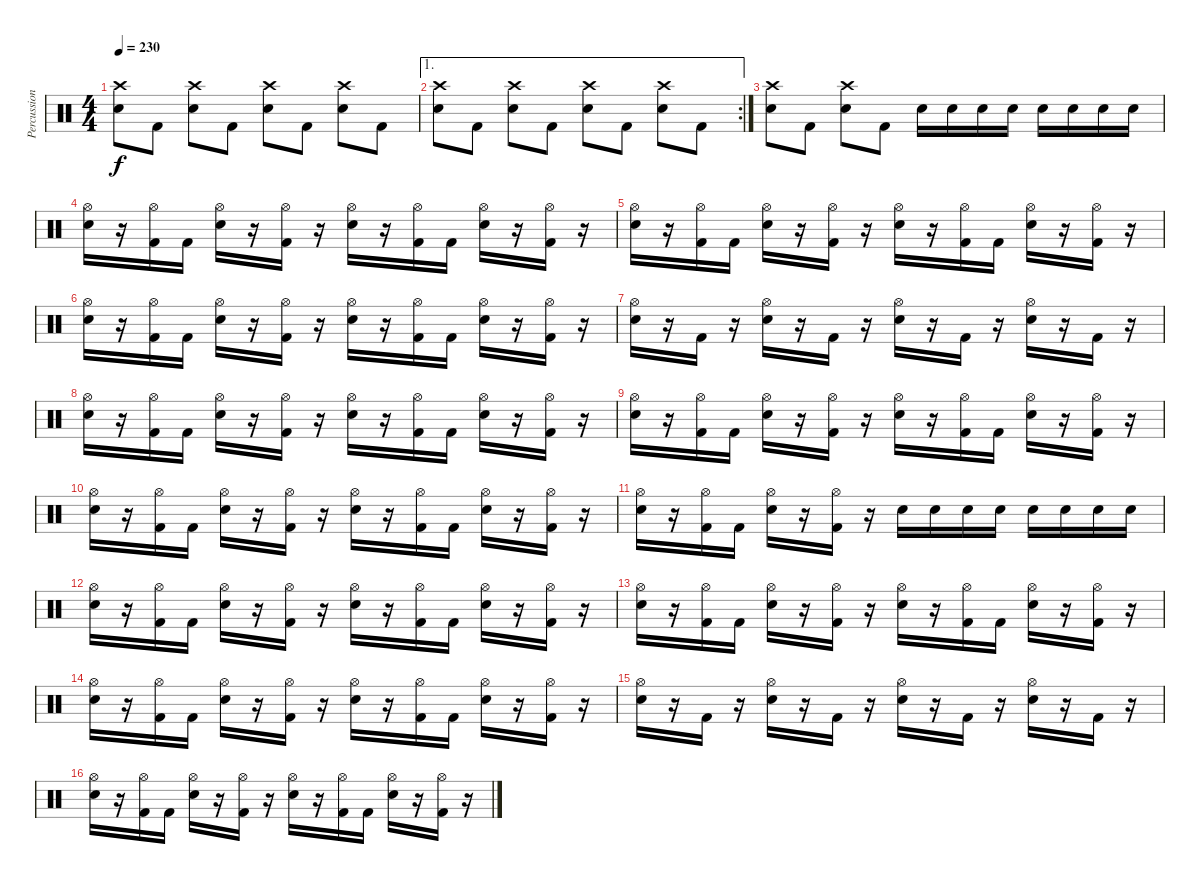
\track ("Percussion" "Percussion") {instrument percussion}
\staff {score}
\articulation defaults
\ts (4 4)
\tempo 230
\clef neutral
\ks c
("Crash high (hit)" "Electric Snare (hit)").8{dy f} "Kick (hit) 2".8 ("Crash high (hit)" "Electric Snare (hit)").8 "Kick (hit) 2".8 ("Crash high (hit)" "Electric Snare (hit)").8 "Kick (hit) 2".8 ("Crash high (hit)" "Electric Snare (hit)").8 "Kick (hit) 2".8 |
\ae 1
\rc 2
("Crash high (hit)" "Electric Snare (hit)").8 "Kick (hit) 2".8 ("Crash high (hit)" "Electric Snare (hit)").8 "Kick (hit) 2".8 ("Crash high (hit)" "Electric Snare (hit)").8 "Kick (hit) 2".8 ("Crash high (hit)" "Electric Snare (hit)").8 "Kick (hit) 2".8 |
("Crash high (hit)" "Electric Snare (hit)").8 "Kick (hit) 2".8 ("Crash high (hit)" "Electric Snare (hit)").8 "Kick (hit) 2".8 "Electric Snare (hit)".16 "Electric Snare (hit)".16 "Electric Snare (hit)".16 "Electric Snare (hit)".16 "Electric Snare (hit)".16 "Electric Snare (hit)".16 "Electric Snare (hit)".16 "Electric Snare (hit)".16 |
("Hi-Hat (open)" "Electric Snare (hit)").16 r.16 ("Hi-Hat (open)" "Kick (hit) 2").16 "Kick (hit) 2".16 ("Hi-Hat (open)" "Electric Snare (hit)").16 r.16 ("Hi-Hat (open)" "Kick (hit) 2").16 r.16 ("Hi-Hat (open)" "Electric Snare (hit)").16 r.16 ("Hi-Hat (open)" "Kick (hit) 2").16 "Kick (hit) 2".16 ("Hi-Hat (open)" "Electric Snare (hit)").16 r.16 ("Hi-Hat (open)" "Kick (hit) 2").16 r.16 |
("Hi-Hat (open)" "Electric Snare (hit)").16 r.16 ("Hi-Hat (open)" "Kick (hit) 2").16 "Kick (hit) 2".16 ("Hi-Hat (open)" "Electric Snare (hit)").16 r.16 ("Hi-Hat (open)" "Kick (hit) 2").16 r.16 ("Hi-Hat (open)" "Electric Snare (hit)").16 r.16 ("Hi-Hat (open)" "Kick (hit) 2").16 "Kick (hit) 2".16 ("Hi-Hat (open)" "Electric Snare (hit)").16 r.16 ("Hi-Hat (open)" "Kick (hit) 2").16 r.16 |
("Hi-Hat (open)" "Electric Snare (hit)").16 r.16 ("Hi-Hat (open)" "Kick (hit) 2").16 "Kick (hit) 2".16 ("Hi-Hat (open)" "Electric Snare (hit)").16 r.16 ("Hi-Hat (open)" "Kick (hit) 2").16 r.16 ("Hi-Hat (open)" "Electric Snare (hit)").16 r.16 ("Hi-Hat (open)" "Kick (hit) 2").16 "Kick (hit) 2".16 ("Hi-Hat (open)" "Electric Snare (hit)").16 r.16 ("Hi-Hat (open)" "Kick (hit) 2").16 r.16 |
("Hi-Hat (open)" "Electric Snare (hit)").16 r.16 "Kick (hit) 2".16 r.16 ("Hi-Hat (open)" "Electric Snare (hit)").16 r.16 "Kick (hit) 2".16 r.16 ("Hi-Hat (open)" "Electric Snare (hit)").16 r.16 "Kick (hit) 2".16 r.16 ("Hi-Hat (open)" "Electric Snare (hit)").16 r.16 "Kick (hit) 2".16 r.16 |
("Hi-Hat (open)" "Electric Snare (hit)").16 r.16 ("Hi-Hat (open)" "Kick (hit) 2").16 "Kick (hit) 2".16 ("Hi-Hat (open)" "Electric Snare (hit)").16 r.16 ("Hi-Hat (open)" "Kick (hit) 2").16 r.16 ("Hi-Hat (open)" "Electric Snare (hit)").16 r.16 ("Hi-Hat (open)" "Kick (hit) 2").16 "Kick (hit) 2".16 ("Hi-Hat (open)" "Electric Snare (hit)").16 r.16 ("Hi-Hat (open)" "Kick (hit) 2").16 r.16 |
("Hi-Hat (open)" "Electric Snare (hit)").16 r.16 ("Hi-Hat (open)" "Kick (hit) 2").16 "Kick (hit) 2".16 ("Hi-Hat (open)" "Electric Snare (hit)").16 r.16 ("Hi-Hat (open)" "Kick (hit) 2").16 r.16 ("Hi-Hat (open)" "Electric Snare (hit)").16 r.16 ("Hi-Hat (open)" "Kick (hit) 2").16 "Kick (hit) 2".16 ("Hi-Hat (open)" "Electric Snare (hit)").16 r.16 ("Hi-Hat (open)" "Kick (hit) 2").16 r.16 |
("Hi-Hat (open)" "Electric Snare (hit)").16 r.16 ("Hi-Hat (open)" "Kick (hit) 2").16 "Kick (hit) 2".16 ("Hi-Hat (open)" "Electric Snare (hit)").16 r.16 ("Hi-Hat (open)" "Kick (hit) 2").16 r.16 ("Hi-Hat (open)" "Electric Snare (hit)").16 r.16 ("Hi-Hat (open)" "Kick (hit) 2").16 "Kick (hit) 2".16 ("Hi-Hat (open)" "Electric Snare (hit)").16 r.16 ("Hi-Hat (open)" "Kick (hit) 2").16 r.16 |
("Hi-Hat (open)" "Electric Snare (hit)").16 r.16 ("Hi-Hat (open)" "Kick (hit) 2").16 "Kick (hit) 2".16 ("Hi-Hat (open)" "Electric Snare (hit)").16 r.16 ("Hi-Hat (open)" "Kick (hit) 2").16 r.16 "Electric Snare (hit)".16 "Electric Snare (hit)".16 "Electric Snare (hit)".16 "Electric Snare (hit)".16 "Electric Snare (hit)".16 "Electric Snare (hit)".16 "Electric Snare (hit)".16 "Electric Snare (hit)".16 |
("Hi-Hat (open)" "Electric Snare (hit)").16 r.16 ("Hi-Hat (open)" "Kick (hit) 2").16 "Kick (hit) 2".16 ("Hi-Hat (open)" "Electric Snare (hit)").16 r.16 ("Hi-Hat (open)" "Kick (hit) 2").16 r.16 ("Hi-Hat (open)" "Electric Snare (hit)").16 r.16 ("Hi-Hat (open)" "Kick (hit) 2").16 "Kick (hit) 2".16 ("Hi-Hat (open)" "Electric Snare (hit)").16 r.16 ("Hi-Hat (open)" "Kick (hit) 2").16 r.16 |
("Hi-Hat (open)" "Electric Snare (hit)").16 r.16 ("Hi-Hat (open)" "Kick (hit) 2").16 "Kick (hit) 2".16 ("Hi-Hat (open)" "Electric Snare (hit)").16 r.16 ("Hi-Hat (open)" "Kick (hit) 2").16 r.16 ("Hi-Hat (open)" "Electric Snare (hit)").16 r.16 ("Hi-Hat (open)" "Kick (hit) 2").16 "Kick (hit) 2".16 ("Hi-Hat (open)" "Electric Snare (hit)").16 r.16 ("Hi-Hat (open)" "Kick (hit) 2").16 r.16 |
("Hi-Hat (open)" "Electric Snare (hit)").16 r.16 ("Hi-Hat (open)" "Kick (hit) 2").16 "Kick (hit) 2".16 ("Hi-Hat (open)" "Electric Snare (hit)").16 r.16 ("Hi-Hat (open)" "Kick (hit) 2").16 r.16 ("Hi-Hat (open)" "Electric Snare (hit)").16 r.16 ("Hi-Hat (open)" "Kick (hit) 2").16 "Kick (hit) 2".16 ("Hi-Hat (open)" "Electric Snare (hit)").16 r.16 ("Hi-Hat (open)" "Kick (hit) 2").16 r.16 |
("Hi-Hat (open)" "Electric Snare (hit)").16 r.16 "Kick (hit) 2".16 r.16 ("Hi-Hat (open)" "Electric Snare (hit)").16 r.16 "Kick (hit) 2".16 r.16 ("Hi-Hat (open)" "Electric Snare (hit)").16 r.16 "Kick (hit) 2".16 r.16 ("Hi-Hat (open)" "Electric Snare (hit)").16 r.16 "Kick (hit) 2".16 r.16 |
("Hi-Hat (open)" "Electric Snare (hit)").16 r.16 ("Hi-Hat (open)" "Kick (hit) 2").16 "Kick (hit) 2".16 ("Hi-Hat (open)" "Electric Snare (hit)").16 r.16 ("Hi-Hat (open)" "Kick (hit) 2").16 r.16 ("Hi-Hat (open)" "Electric Snare (hit)").16 r.16 ("Hi-Hat (open)" "Kick (hit) 2").16 "Kick (hit) 2".16 ("Hi-Hat (open)" "Electric Snare (hit)").16 r.16 ("Hi-Hat (open)" "Kick (hit) 2").16 r.16
